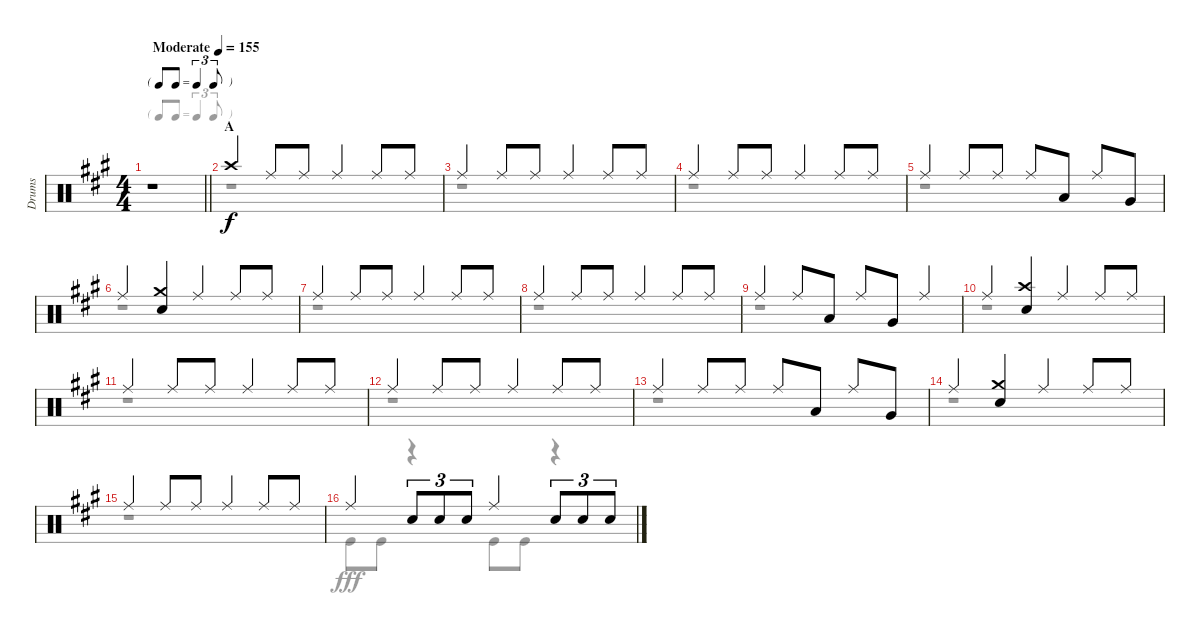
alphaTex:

\track ("Drums" "Drums") {instrument percussion}
\staff {score}
\articulation defaults
\voice
\ts (4 4)
\tf triplet8th
\tempo (155 "Moderate")
\clef neutral
\barLineRight lightlight
\ks a
r.1{dy f} |
\section ("" "A")
"Crash high (hit)".4 "Ride (middle)".8 "Ride (middle)".8 "Ride (middle)".4 "Ride (middle)".8 "Ride (middle)".8 |
"Ride (middle)".4 "Ride (middle)".8 "Ride (middle)".8 "Ride (middle)".4 "Ride (middle)".8 "Ride (middle)".8 |
"Ride (middle)".4 "Ride (middle)".8 "Ride (middle)".8 "Ride (middle)".4 "Ride (middle)".8 "Ride (middle)".8 |
"Ride (middle)".4 "Ride (middle)".8 "Ride (middle)".8 "Ride (middle)".8 "Low Tom (hit)".8 "Ride (middle)".8 "Very Low Tom (hit)".8 |
"Ride (middle)".4 ("Crash medium (hit)" "Snare (hit) 2").4 "Ride (middle)".4 "Ride (middle)".8 "Ride (middle)".8 |
"Ride (middle)".4 "Ride (middle)".8 "Ride (middle)".8 "Ride (middle)".4 "Ride (middle)".8 "Ride (middle)".8 |
"Ride (middle)".4 "Ride (middle)".8 "Ride (middle)".8 "Ride (middle)".4 "Ride (middle)".8 "Ride (middle)".8 |
"Ride (middle)".4 "Ride (middle)".8 "Low Tom (hit)".8 "Ride (middle)".8 "Very Low Tom (hit)".8 "Ride (middle)".4 |
"Ride (middle)".4 ("Crash high (hit)" "Snare (hit) 2").4 "Ride (middle)".4 "Ride (middle)".8 "Ride (middle)".8 |
"Ride (middle)".4 "Ride (middle)".8 "Ride (middle)".8 "Ride (middle)".4 "Ride (middle)".8 "Ride (middle)".8 |
"Ride (middle)".4 "Ride (middle)".8 "Ride (middle)".8 "Ride (middle)".4 "Ride (middle)".8 "Ride (middle)".8 |
"Ride (middle)".4 "Ride (middle)".8 "Ride (middle)".8 "Ride (middle)".8 "Low Tom (hit)".8 "Ride (middle)".8 "Very Low Tom (hit)".8 |
"Ride (middle)".4 ("Crash medium (hit)" "Snare (hit) 2").4 "Ride (middle)".4 "Ride (middle)".8 "Ride (middle)".8 |
"Ride (middle)".4 "Ride (middle)".8 "Ride (middle)".8 "Ride (middle)".4 "Ride (middle)".8 "Ride (middle)".8 |
"Ride (middle)".4 "Snare (hit) 2".8{tu (3 2)} "Snare (hit) 2".8{tu (3 2)} "Snare (hit) 2".8{tu (3 2)} "Ride (middle)".4 "Snare (hit) 2".8{tu (3 2)} "Snare (hit) 2".8{tu (3 2)} "Snare (hit) 2".8{tu (3 2)}
\voice
\clef neutral
\ottava regular
\simile none
\barLineRight lightlight
\ks a
r.1{dy fff} |
r.1 |
r.1 |
r.1 |
r.1 |
r.1 |
r.1 |
r.1 |
r.1 |
r.1 |
r.1 |
r.1 |
r.1 |
r.1 |
r.1 |
"Kick (hit)".8 "Kick (hit)".8 r.4 "Kick (hit)".8 "Kick (hit)".8 r.4
